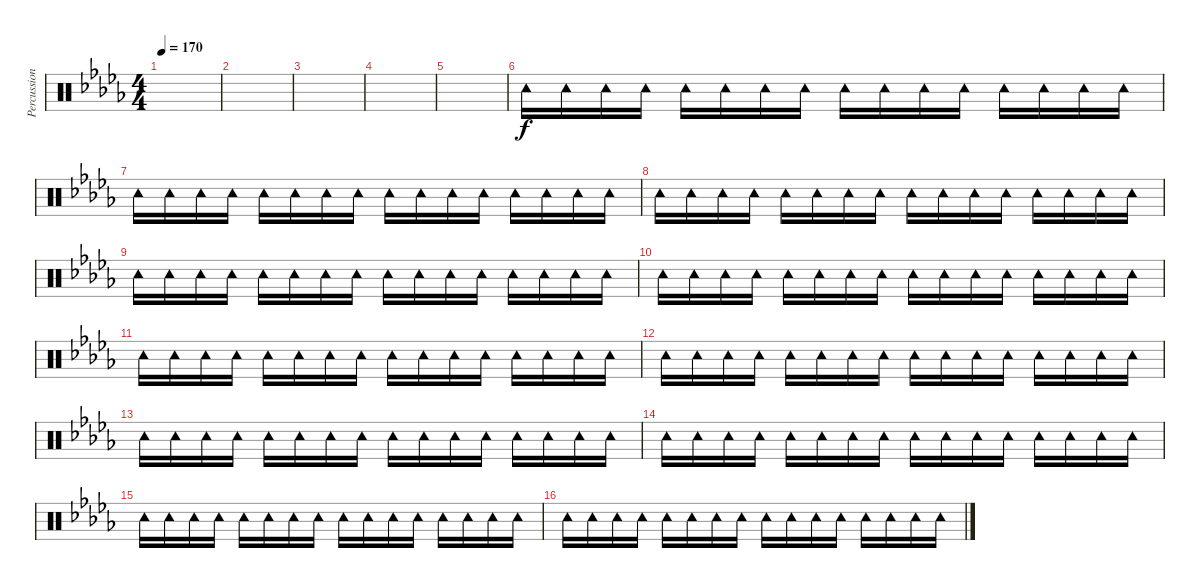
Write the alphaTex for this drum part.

\track ("Percussion" "Percussion") {instrument percussion}
\staff {score}
\articulation defaults
\ts (4 4)
\tempo 170
\clef neutral
\ks db
|
|
|
|
|
"Tambourine (hit)".16 "Tambourine (hit)".16 "Tambourine (hit)".16 "Tambourine (hit)".16 "Tambourine (hit)".16 "Tambourine (hit)".16 "Tambourine (hit)".16 "Tambourine (hit)".16 "Tambourine (hit)".16 "Tambourine (hit)".16 "Tambourine (hit)".16 "Tambourine (hit)".16 "Tambourine (hit)".16 "Tambourine (hit)".16 "Tambourine (hit)".16 "Tambourine (hit)".16 |
"Tambourine (hit)".16 "Tambourine (hit)".16 "Tambourine (hit)".16 "Tambourine (hit)".16 "Tambourine (hit)".16 "Tambourine (hit)".16 "Tambourine (hit)".16 "Tambourine (hit)".16 "Tambourine (hit)".16 "Tambourine (hit)".16 "Tambourine (hit)".16 "Tambourine (hit)".16 "Tambourine (hit)".16 "Tambourine (hit)".16 "Tambourine (hit)".16 "Tambourine (hit)".16 |
"Tambourine (hit)".16 "Tambourine (hit)".16 "Tambourine (hit)".16 "Tambourine (hit)".16 "Tambourine (hit)".16 "Tambourine (hit)".16 "Tambourine (hit)".16 "Tambourine (hit)".16 "Tambourine (hit)".16 "Tambourine (hit)".16 "Tambourine (hit)".16 "Tambourine (hit)".16 "Tambourine (hit)".16 "Tambourine (hit)".16 "Tambourine (hit)".16 "Tambourine (hit)".16 |
"Tambourine (hit)".16 "Tambourine (hit)".16 "Tambourine (hit)".16 "Tambourine (hit)".16 "Tambourine (hit)".16 "Tambourine (hit)".16 "Tambourine (hit)".16 "Tambourine (hit)".16 "Tambourine (hit)".16 "Tambourine (hit)".16 "Tambourine (hit)".16 "Tambourine (hit)".16 "Tambourine (hit)".16 "Tambourine (hit)".16 "Tambourine (hit)".16 "Tambourine (hit)".16 |
"Tambourine (hit)".16 "Tambourine (hit)".16 "Tambourine (hit)".16 "Tambourine (hit)".16 "Tambourine (hit)".16 "Tambourine (hit)".16 "Tambourine (hit)".16 "Tambourine (hit)".16 "Tambourine (hit)".16 "Tambourine (hit)".16 "Tambourine (hit)".16 "Tambourine (hit)".16 "Tambourine (hit)".16 "Tambourine (hit)".16 "Tambourine (hit)".16 "Tambourine (hit)".16 |
"Tambourine (hit)".16 "Tambourine (hit)".16 "Tambourine (hit)".16 "Tambourine (hit)".16 "Tambourine (hit)".16 "Tambourine (hit)".16 "Tambourine (hit)".16 "Tambourine (hit)".16 "Tambourine (hit)".16 "Tambourine (hit)".16 "Tambourine (hit)".16 "Tambourine (hit)".16 "Tambourine (hit)".16 "Tambourine (hit)".16 "Tambourine (hit)".16 "Tambourine (hit)".16 |
"Tambourine (hit)".16 "Tambourine (hit)".16 "Tambourine (hit)".16 "Tambourine (hit)".16 "Tambourine (hit)".16 "Tambourine (hit)".16 "Tambourine (hit)".16 "Tambourine (hit)".16 "Tambourine (hit)".16 "Tambourine (hit)".16 "Tambourine (hit)".16 "Tambourine (hit)".16 "Tambourine (hit)".16 "Tambourine (hit)".16 "Tambourine (hit)".16 "Tambourine (hit)".16 |
"Tambourine (hit)".16 "Tambourine (hit)".16 "Tambourine (hit)".16 "Tambourine (hit)".16 "Tambourine (hit)".16 "Tambourine (hit)".16 "Tambourine (hit)".16 "Tambourine (hit)".16 "Tambourine (hit)".16 "Tambourine (hit)".16 "Tambourine (hit)".16 "Tambourine (hit)".16 "Tambourine (hit)".16 "Tambourine (hit)".16 "Tambourine (hit)".16 "Tambourine (hit)".16 |
"Tambourine (hit)".16 "Tambourine (hit)".16 "Tambourine (hit)".16 "Tambourine (hit)".16 "Tambourine (hit)".16 "Tambourine (hit)".16 "Tambourine (hit)".16 "Tambourine (hit)".16 "Tambourine (hit)".16 "Tambourine (hit)".16 "Tambourine (hit)".16 "Tambourine (hit)".16 "Tambourine (hit)".16 "Tambourine (hit)".16 "Tambourine (hit)".16 "Tambourine (hit)".16 |
"Tambourine (hit)".16 "Tambourine (hit)".16 "Tambourine (hit)".16 "Tambourine (hit)".16 "Tambourine (hit)".16 "Tambourine (hit)".16 "Tambourine (hit)".16 "Tambourine (hit)".16 "Tambourine (hit)".16 "Tambourine (hit)".16 "Tambourine (hit)".16 "Tambourine (hit)".16 "Tambourine (hit)".16 "Tambourine (hit)".16 "Tambourine (hit)".16 "Tambourine (hit)".16 |
"Tambourine (hit)".16 "Tambourine (hit)".16 "Tambourine (hit)".16 "Tambourine (hit)".16 "Tambourine (hit)".16 "Tambourine (hit)".16 "Tambourine (hit)".16 "Tambourine (hit)".16 "Tambourine (hit)".16 "Tambourine (hit)".16 "Tambourine (hit)".16 "Tambourine (hit)".16 "Tambourine (hit)".16 "Tambourine (hit)".16 "Tambourine (hit)".16 "Tambourine (hit)".16
